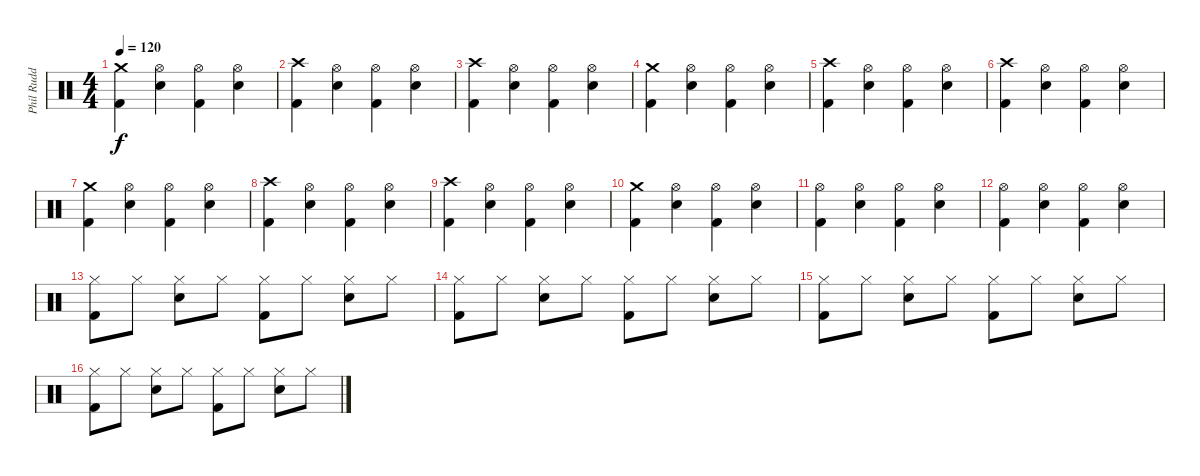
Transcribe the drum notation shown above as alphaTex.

\track ("Phil Rudd (Drum)" "Phil Rudd ") {instrument percussion}
\staff {score}
\articulation defaults
\ts (4 4)
\tempo 120
\clef neutral
\ks c
("Crash medium (hit)" "Kick (hit) 2").4{dy f} ("Hi-Hat (open)" "Snare (hit) 2").4 ("Hi-Hat (open)" "Kick (hit) 2").4 ("Hi-Hat (open)" "Snare (hit) 2").4 |
("Crash high (hit)" "Kick (hit) 2").4 ("Hi-Hat (open)" "Snare (hit) 2").4 ("Hi-Hat (open)" "Kick (hit) 2").4 ("Hi-Hat (open)" "Snare (hit) 2").4 |
("Crash high (hit)" "Kick (hit) 2").4 ("Hi-Hat (open)" "Snare (hit) 2").4 ("Hi-Hat (open)" "Kick (hit) 2").4 ("Hi-Hat (open)" "Snare (hit) 2").4 |
("Crash medium (hit)" "Kick (hit) 2").4 ("Hi-Hat (open)" "Snare (hit) 2").4 ("Hi-Hat (open)" "Kick (hit) 2").4 ("Hi-Hat (open)" "Snare (hit) 2").4 |
("Crash high (hit)" "Kick (hit) 2").4 ("Hi-Hat (open)" "Snare (hit) 2").4 ("Hi-Hat (open)" "Kick (hit) 2").4 ("Hi-Hat (open)" "Snare (hit) 2").4 |
("Crash high (hit)" "Kick (hit) 2").4 ("Hi-Hat (open)" "Snare (hit) 2").4 ("Hi-Hat (open)" "Kick (hit) 2").4 ("Hi-Hat (open)" "Snare (hit) 2").4 |
("Crash medium (hit)" "Kick (hit) 2").4 ("Hi-Hat (open)" "Snare (hit) 2").4 ("Hi-Hat (open)" "Kick (hit) 2").4 ("Hi-Hat (open)" "Snare (hit) 2").4 |
("Crash high (hit)" "Kick (hit) 2").4 ("Hi-Hat (open)" "Snare (hit) 2").4 ("Hi-Hat (open)" "Kick (hit) 2").4 ("Hi-Hat (open)" "Snare (hit) 2").4 |
("Crash high (hit)" "Kick (hit) 2").4 ("Hi-Hat (open)" "Snare (hit) 2").4 ("Hi-Hat (open)" "Kick (hit) 2").4 ("Hi-Hat (open)" "Snare (hit) 2").4 |
("Crash medium (hit)" "Kick (hit) 2").4 ("Hi-Hat (open)" "Snare (hit) 2").4 ("Hi-Hat (open)" "Kick (hit) 2").4 ("Hi-Hat (open)" "Snare (hit) 2").4 |
("Hi-Hat (open)" "Kick (hit) 2").4 ("Hi-Hat (open)" "Snare (hit) 2").4 ("Hi-Hat (open)" "Kick (hit) 2").4 ("Hi-Hat (open)" "Snare (hit) 2").4 |
("Hi-Hat (open)" "Kick (hit) 2").4 ("Hi-Hat (open)" "Snare (hit) 2").4 ("Hi-Hat (open)" "Kick (hit) 2").4 ("Hi-Hat (open)" "Snare (hit) 2").4 |
("Hi-Hat (closed)" "Kick (hit) 2").8 "Hi-Hat (closed)".8 ("Hi-Hat (closed)" "Snare (hit) 2").8 "Hi-Hat (closed)".8 ("Hi-Hat (closed)" "Kick (hit) 2").8 "Hi-Hat (closed)".8 ("Hi-Hat (closed)" "Snare (hit) 2").8 "Hi-Hat (closed)".8 |
("Hi-Hat (closed)" "Kick (hit) 2").8 "Hi-Hat (closed)".8 ("Hi-Hat (closed)" "Snare (hit) 2").8 "Hi-Hat (closed)".8 ("Hi-Hat (closed)" "Kick (hit) 2").8 "Hi-Hat (closed)".8 ("Hi-Hat (closed)" "Snare (hit) 2").8 "Hi-Hat (closed)".8 |
("Hi-Hat (closed)" "Kick (hit) 2").8 "Hi-Hat (closed)".8 ("Hi-Hat (closed)" "Snare (hit) 2").8 "Hi-Hat (closed)".8 ("Hi-Hat (closed)" "Kick (hit) 2").8 "Hi-Hat (closed)".8 ("Hi-Hat (closed)" "Snare (hit) 2").8 "Hi-Hat (closed)".8 |
("Hi-Hat (closed)" "Kick (hit) 2").8 "Hi-Hat (closed)".8 ("Hi-Hat (closed)" "Snare (hit) 2").8 "Hi-Hat (closed)".8 ("Hi-Hat (closed)" "Kick (hit) 2").8 "Hi-Hat (closed)".8 ("Hi-Hat (closed)" "Snare (hit) 2").8 "Hi-Hat (closed)".8
